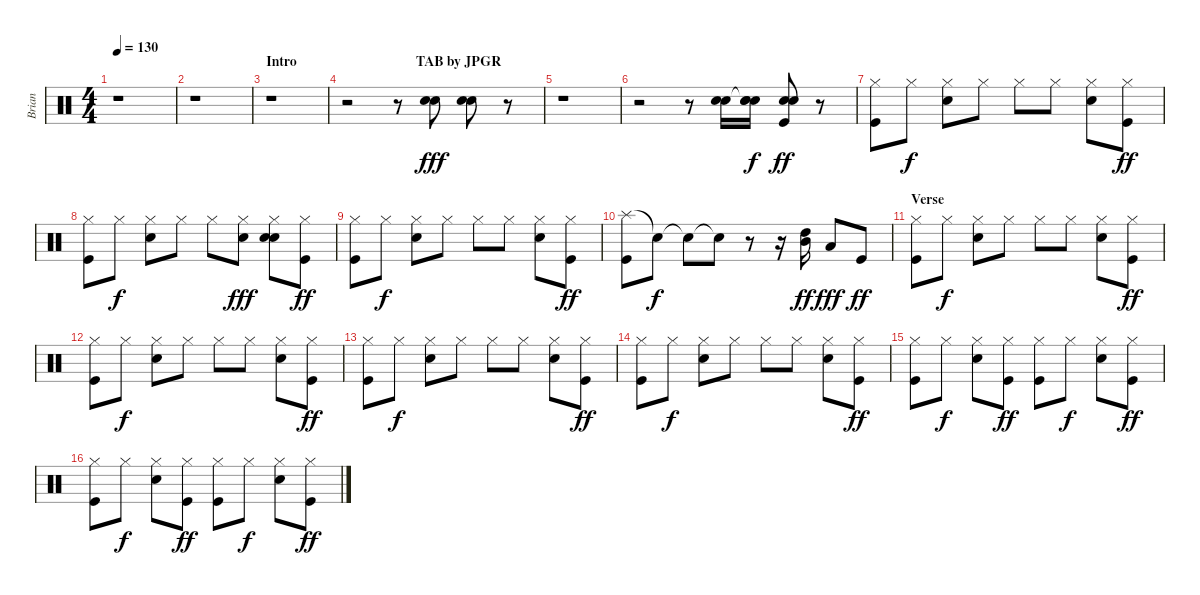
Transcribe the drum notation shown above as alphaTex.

\track ("Brian" "Brian") {instrument percussion}
\staff {score}
\articulation defaults
\ts (4 4)
\tempo 130
\clef neutral
\ks c
r.1{dy fff} |
r.1 |
\section ("" "Intro                                  TAB by JPGR")
r.1 |
r.2 r.8 ("Hand Clap (hit)" "Hand Clap (hit)").8 ("Hand Clap (hit)" "Hand Clap (hit)").8 r.8 |
r.1 |
r.2 r.8 ("Hand Clap (hit)" "Hand Clap (hit)").16 ("Electric Snare (hit)" "Snare (hit)"{t} "Snare (hit)").16{dy f} ("Hand Clap (hit)" "Hand Clap (hit)" "Kick (hit)").8{dy ff} r.8 |
("Hi-Hat (closed)" "Kick (hit)").8 "Hi-Hat (closed)".8{dy f} ("Hi-Hat (closed)" "Electric Snare (hit)").8 "Hi-Hat (closed)".8 "Hi-Hat (closed)".8 "Hi-Hat (closed)".8 ("Hi-Hat (closed)" "Electric Snare (hit)").8 ("Hi-Hat (closed)" "Kick (hit)").8{dy ff} |
("Hi-Hat (closed)" "Kick (hit)").8 "Hi-Hat (closed)".8{dy f} ("Hi-Hat (closed)" "Electric Snare (hit)").8 "Hi-Hat (closed)".8 "Hi-Hat (closed)".8 ("Hi-Hat (closed)" "Hand Clap (hit)").8{dy fff} ("Hi-Hat (closed)" "Hand Clap (hit)" "Electric Snare (hit)").8 ("Hi-Hat (closed)" "Kick (hit)").8{dy ff} |
("Hi-Hat (closed)" "Kick (hit)").8 "Hi-Hat (closed)".8{dy f} ("Hi-Hat (closed)" "Electric Snare (hit)").8 "Hi-Hat (closed)".8 "Hi-Hat (closed)".8 "Hi-Hat (closed)".8 ("Hi-Hat (closed)" "Electric Snare (hit)").8 ("Hi-Hat (closed)" "Kick (hit)").8{dy ff} |
("Splash (hit)" "Kick (hit)").8 "Snare (hit)"{t}.8{dy f} "Snare (hit)"{t}.8 "Snare (hit)"{t}.8 r.8 r.16 ("High Tom (hit)" "Mid Tom (hit)").16{dy ff} "Low Tom (hit)".8{dy fff} "Kick (hit)".8{dy ff} |
\section ("" "Verse")
("Hi-Hat (closed)" "Kick (hit)").8 "Hi-Hat (closed)".8{dy f} ("Hi-Hat (closed)" "Electric Snare (hit)").8 "Hi-Hat (closed)".8 "Hi-Hat (closed)".8 "Hi-Hat (closed)".8 ("Hi-Hat (closed)" "Electric Snare (hit)").8 ("Hi-Hat (closed)" "Kick (hit)").8{dy ff} |
("Hi-Hat (closed)" "Kick (hit)").8 "Hi-Hat (closed)".8{dy f} ("Hi-Hat (closed)" "Electric Snare (hit)").8 "Hi-Hat (closed)".8 "Hi-Hat (closed)".8 "Hi-Hat (closed)".8 ("Hi-Hat (closed)" "Electric Snare (hit)").8 ("Hi-Hat (closed)" "Kick (hit)").8{dy ff} |
("Hi-Hat (closed)" "Kick (hit)").8 "Hi-Hat (closed)".8{dy f} ("Hi-Hat (closed)" "Electric Snare (hit)").8 "Hi-Hat (closed)".8 "Hi-Hat (closed)".8 "Hi-Hat (closed)".8 ("Hi-Hat (closed)" "Electric Snare (hit)").8 ("Hi-Hat (closed)" "Kick (hit)").8{dy ff} |
("Hi-Hat (closed)" "Kick (hit)").8 "Hi-Hat (closed)".8{dy f} ("Hi-Hat (closed)" "Electric Snare (hit)").8 "Hi-Hat (closed)".8 "Hi-Hat (closed)".8 "Hi-Hat (closed)".8 ("Hi-Hat (closed)" "Electric Snare (hit)").8 ("Hi-Hat (closed)" "Kick (hit)").8{dy ff} |
("Hi-Hat (closed)" "Kick (hit)").8 "Hi-Hat (closed)".8{dy f} ("Hi-Hat (closed)" "Electric Snare (hit)").8 ("Hi-Hat (closed)" "Kick (hit)").8{dy ff} ("Hi-Hat (closed)" "Kick (hit)").8 "Hi-Hat (closed)".8{dy f} ("Hi-Hat (closed)" "Electric Snare (hit)").8 ("Hi-Hat (closed)" "Kick (hit)").8{dy ff} |
("Hi-Hat (closed)" "Kick (hit)").8 "Hi-Hat (closed)".8{dy f} ("Hi-Hat (closed)" "Electric Snare (hit)").8 ("Hi-Hat (closed)" "Kick (hit)").8{dy ff} ("Hi-Hat (closed)" "Kick (hit)").8 "Hi-Hat (closed)".8{dy f} ("Hi-Hat (closed)" "Electric Snare (hit)").8 ("Hi-Hat (closed)" "Kick (hit)").8{dy ff}
